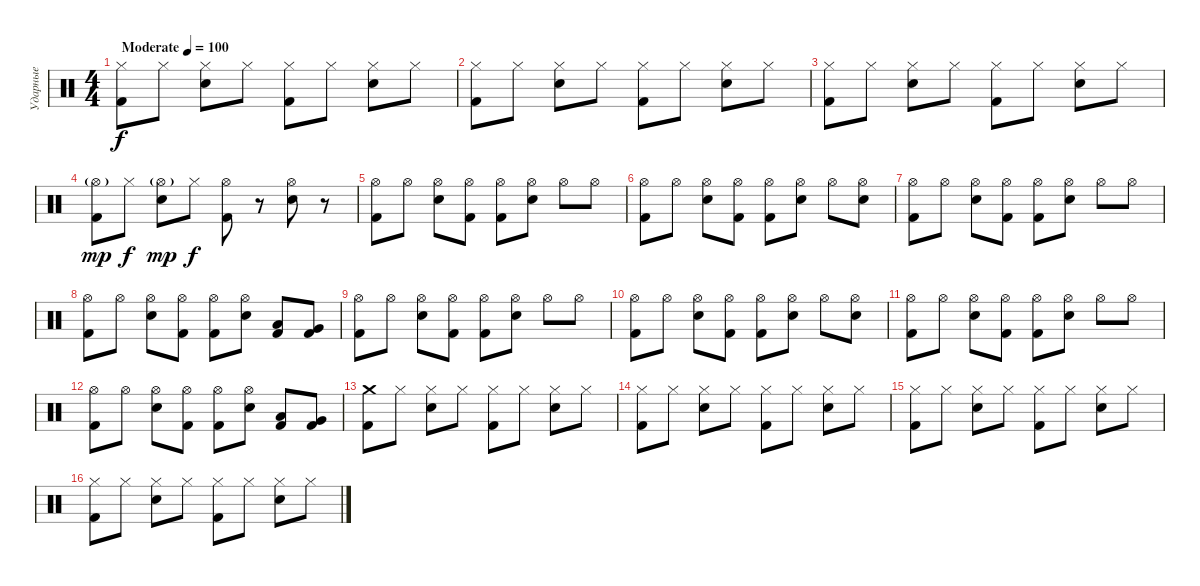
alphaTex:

\track ("Ударные" "Ударные") {instrument percussion}
\staff {score}
\articulation defaults
\ts (4 4)
\tempo (100 "Moderate")
\clef neutral
\ks c
("Kick (hit) 2" "Hi-Hat (closed)").8{dy f} "Hi-Hat (closed)".8 ("Electric Snare (hit)" "Hi-Hat (closed)").8 "Hi-Hat (closed)".8 ("Kick (hit) 2" "Hi-Hat (closed)").8 "Hi-Hat (closed)".8 ("Electric Snare (hit)" "Hi-Hat (closed)").8 "Hi-Hat (closed)".8 |
("Kick (hit) 2" "Hi-Hat (closed)").8 "Hi-Hat (closed)".8 ("Electric Snare (hit)" "Hi-Hat (closed)").8 "Hi-Hat (closed)".8 ("Kick (hit) 2" "Hi-Hat (closed)").8 "Hi-Hat (closed)".8 ("Electric Snare (hit)" "Hi-Hat (closed)").8 "Hi-Hat (closed)".8 |
("Kick (hit) 2" "Hi-Hat (closed)").8 "Hi-Hat (closed)".8 ("Electric Snare (hit)" "Hi-Hat (closed)").8 "Hi-Hat (closed)".8 ("Kick (hit) 2" "Hi-Hat (closed)").8 "Hi-Hat (closed)".8 ("Electric Snare (hit)" "Hi-Hat (closed)").8 "Hi-Hat (closed)".8 |
("Kick (hit) 2" "Hi-Hat (open)"{g}).8{dy mp} "Hi-Hat (closed)".8{dy f} ("Electric Snare (hit)" "Hi-Hat (open)"{g}).8{dy mp} "Hi-Hat (closed)".8{dy f} ("Kick (hit) 2" "Hi-Hat (open)").8 r.8 ("Electric Snare (hit)" "Hi-Hat (open)").8 r.8 |
("Kick (hit) 2" "Hi-Hat (open)").8 "Hi-Hat (open)".8 ("Electric Snare (hit)" "Hi-Hat (open)").8 ("Kick (hit) 2" "Hi-Hat (open)").8 ("Kick (hit) 2" "Hi-Hat (open)").8 ("Electric Snare (hit)" "Hi-Hat (open)").8 "Hi-Hat (open)".8 "Hi-Hat (open)".8 |
("Kick (hit) 2" "Hi-Hat (open)").8 "Hi-Hat (open)".8 ("Electric Snare (hit)" "Hi-Hat (open)").8 ("Kick (hit) 2" "Hi-Hat (open)").8 ("Kick (hit) 2" "Hi-Hat (open)").8 ("Electric Snare (hit)" "Hi-Hat (open)").8 "Hi-Hat (open)".8 ("Electric Snare (hit)" "Hi-Hat (open)").8 |
("Kick (hit) 2" "Hi-Hat (open)").8 "Hi-Hat (open)".8 ("Electric Snare (hit)" "Hi-Hat (open)").8 ("Kick (hit) 2" "Hi-Hat (open)").8 ("Kick (hit) 2" "Hi-Hat (open)").8 ("Electric Snare (hit)" "Hi-Hat (open)").8 "Hi-Hat (open)".8 "Hi-Hat (open)".8 |
("Kick (hit) 2" "Hi-Hat (open)").8 "Hi-Hat (open)".8 ("Electric Snare (hit)" "Hi-Hat (open)").8 ("Kick (hit) 2" "Hi-Hat (open)").8 ("Kick (hit) 2" "Hi-Hat (open)").8 ("Electric Snare (hit)" "Hi-Hat (open)").8 ("Low Tom (hit)" "Kick (hit) 2").8 ("Very Low Tom (hit)" "Kick (hit) 2").8 |
("Kick (hit) 2" "Hi-Hat (open)").8 "Hi-Hat (open)".8 ("Electric Snare (hit)" "Hi-Hat (open)").8 ("Kick (hit) 2" "Hi-Hat (open)").8 ("Kick (hit) 2" "Hi-Hat (open)").8 ("Electric Snare (hit)" "Hi-Hat (open)").8 "Hi-Hat (open)".8 "Hi-Hat (open)".8 |
("Kick (hit) 2" "Hi-Hat (open)").8 "Hi-Hat (open)".8 ("Electric Snare (hit)" "Hi-Hat (open)").8 ("Kick (hit) 2" "Hi-Hat (open)").8 ("Kick (hit) 2" "Hi-Hat (open)").8 ("Electric Snare (hit)" "Hi-Hat (open)").8 "Hi-Hat (open)".8 ("Electric Snare (hit)" "Hi-Hat (open)").8 |
("Kick (hit) 2" "Hi-Hat (open)").8 "Hi-Hat (open)".8 ("Electric Snare (hit)" "Hi-Hat (open)").8 ("Kick (hit) 2" "Hi-Hat (open)").8 ("Kick (hit) 2" "Hi-Hat (open)").8 ("Electric Snare (hit)" "Hi-Hat (open)").8 "Hi-Hat (open)".8 "Hi-Hat (open)".8 |
("Kick (hit) 2" "Hi-Hat (open)").8 "Hi-Hat (open)".8 ("Electric Snare (hit)" "Hi-Hat (open)").8 ("Kick (hit) 2" "Hi-Hat (open)").8 ("Kick (hit) 2" "Hi-Hat (open)").8 ("Electric Snare (hit)" "Hi-Hat (open)").8 ("Low Tom (hit)" "Kick (hit) 2").8 ("Very Low Tom (hit)" "Kick (hit) 2").8 |
("Kick (hit) 2" "Crash medium (hit)").8 "Hi-Hat (closed)".8 ("Electric Snare (hit)" "Hi-Hat (closed)").8 "Hi-Hat (closed)".8 ("Kick (hit) 2" "Hi-Hat (closed)").8 "Hi-Hat (closed)".8 ("Electric Snare (hit)" "Hi-Hat (closed)").8 "Hi-Hat (closed)".8 |
("Kick (hit) 2" "Hi-Hat (closed)").8 "Hi-Hat (closed)".8 ("Electric Snare (hit)" "Hi-Hat (closed)").8 "Hi-Hat (closed)".8 ("Kick (hit) 2" "Hi-Hat (closed)").8 "Hi-Hat (closed)".8 ("Electric Snare (hit)" "Hi-Hat (closed)").8 "Hi-Hat (closed)".8 |
("Kick (hit) 2" "Hi-Hat (closed)").8 "Hi-Hat (closed)".8 ("Electric Snare (hit)" "Hi-Hat (closed)").8 "Hi-Hat (closed)".8 ("Kick (hit) 2" "Hi-Hat (closed)").8 "Hi-Hat (closed)".8 ("Electric Snare (hit)" "Hi-Hat (closed)").8 "Hi-Hat (closed)".8 |
("Kick (hit) 2" "Hi-Hat (closed)").8 "Hi-Hat (closed)".8 ("Electric Snare (hit)" "Hi-Hat (closed)").8 "Hi-Hat (closed)".8 ("Kick (hit) 2" "Hi-Hat (closed)").8 "Hi-Hat (closed)".8 ("Electric Snare (hit)" "Hi-Hat (closed)").8 "Hi-Hat (closed)".8
